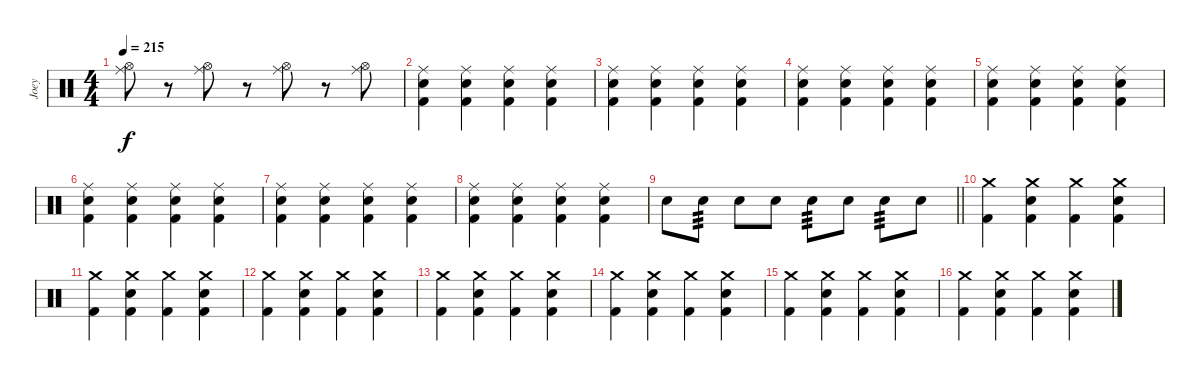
\track ("Joey" "Joey") {instrument percussion}
\staff {score}
\articulation defaults
\ts (4 4)
\tempo 215
\clef neutral
\ks c
("Hi-Hat (open)" "Ride (middle)").8{dy f} r.8 ("Hi-Hat (open)" "Ride (middle)").8 r.8 ("Hi-Hat (open)" "Ride (middle)").8 r.8 ("Hi-Hat (open)" "Ride (middle)").8 |
("Ride (middle)" "Electric Snare (hit)" "Kick (hit) 2").4 ("Ride (middle)" "Electric Snare (hit)" "Kick (hit) 2").4 ("Ride (middle)" "Electric Snare (hit)" "Kick (hit) 2").4 ("Ride (middle)" "Electric Snare (hit)" "Kick (hit) 2").4 |
("Ride (middle)" "Electric Snare (hit)" "Kick (hit) 2").4 ("Ride (middle)" "Electric Snare (hit)" "Kick (hit) 2").4 ("Ride (middle)" "Electric Snare (hit)" "Kick (hit) 2").4 ("Ride (middle)" "Electric Snare (hit)" "Kick (hit) 2").4 |
("Ride (middle)" "Electric Snare (hit)" "Kick (hit) 2").4 ("Ride (middle)" "Electric Snare (hit)" "Kick (hit) 2").4 ("Ride (middle)" "Electric Snare (hit)" "Kick (hit) 2").4 ("Ride (middle)" "Electric Snare (hit)" "Kick (hit) 2").4 |
("Ride (middle)" "Electric Snare (hit)" "Kick (hit) 2").4 ("Ride (middle)" "Electric Snare (hit)" "Kick (hit) 2").4 ("Ride (middle)" "Electric Snare (hit)" "Kick (hit) 2").4 ("Ride (middle)" "Electric Snare (hit)" "Kick (hit) 2").4 |
("Ride (middle)" "Electric Snare (hit)" "Kick (hit) 2").4 ("Ride (middle)" "Electric Snare (hit)" "Kick (hit) 2").4 ("Ride (middle)" "Electric Snare (hit)" "Kick (hit) 2").4 ("Ride (middle)" "Electric Snare (hit)" "Kick (hit) 2").4 |
("Ride (middle)" "Electric Snare (hit)" "Kick (hit) 2").4 ("Ride (middle)" "Electric Snare (hit)" "Kick (hit) 2").4 ("Ride (middle)" "Electric Snare (hit)" "Kick (hit) 2").4 ("Ride (middle)" "Electric Snare (hit)" "Kick (hit) 2").4 |
("Ride (middle)" "Electric Snare (hit)" "Kick (hit) 2").4 ("Ride (middle)" "Electric Snare (hit)" "Kick (hit) 2").4 ("Ride (middle)" "Electric Snare (hit)" "Kick (hit) 2").4 ("Ride (middle)" "Electric Snare (hit)" "Kick (hit) 2").4 |
\barLineRight lightlight "Electric Snare (hit)".8 "Electric Snare (hit)".8{tp 3} "Electric Snare (hit)".8 "Electric Snare (hit)".8 "Electric Snare (hit)".8{tp 3} "Electric Snare (hit)".8 "Electric Snare (hit)".8{tp 3} "Electric Snare (hit)".8
|
("Crash medium (hit)" "Kick (hit) 2").4 ("Crash medium (hit)" "Electric Snare (hit)" "Kick (hit) 2").4 ("Crash medium (hit)" "Kick (hit) 2").4 ("Crash medium (hit)" "Electric Snare (hit)" "Kick (hit) 2").4 |
("Crash medium (hit)" "Kick (hit) 2").4 ("Crash medium (hit)" "Electric Snare (hit)" "Kick (hit) 2").4 ("Crash medium (hit)" "Kick (hit) 2").4 ("Crash medium (hit)" "Electric Snare (hit)" "Kick (hit) 2").4 |
("Crash medium (hit)" "Kick (hit) 2").4 ("Crash medium (hit)" "Electric Snare (hit)" "Kick (hit) 2").4 ("Crash medium (hit)" "Kick (hit) 2").4 ("Crash medium (hit)" "Electric Snare (hit)" "Kick (hit) 2").4 |
("Crash medium (hit)" "Kick (hit) 2").4 ("Crash medium (hit)" "Electric Snare (hit)" "Kick (hit) 2").4 ("Crash medium (hit)" "Kick (hit) 2").4 ("Crash medium (hit)" "Electric Snare (hit)" "Kick (hit) 2").4 |
("Crash medium (hit)" "Kick (hit) 2").4 ("Crash medium (hit)" "Electric Snare (hit)" "Kick (hit) 2").4 ("Crash medium (hit)" "Kick (hit) 2").4 ("Crash medium (hit)" "Electric Snare (hit)" "Kick (hit) 2").4 |
("Crash medium (hit)" "Kick (hit) 2").4 ("Crash medium (hit)" "Electric Snare (hit)" "Kick (hit) 2").4 ("Crash medium (hit)" "Kick (hit) 2").4 ("Crash medium (hit)" "Electric Snare (hit)" "Kick (hit) 2").4 |
("Crash medium (hit)" "Kick (hit) 2").4 ("Crash medium (hit)" "Electric Snare (hit)" "Kick (hit) 2").4 ("Crash medium (hit)" "Kick (hit) 2").4 ("Crash medium (hit)" "Electric Snare (hit)" "Kick (hit) 2").4
